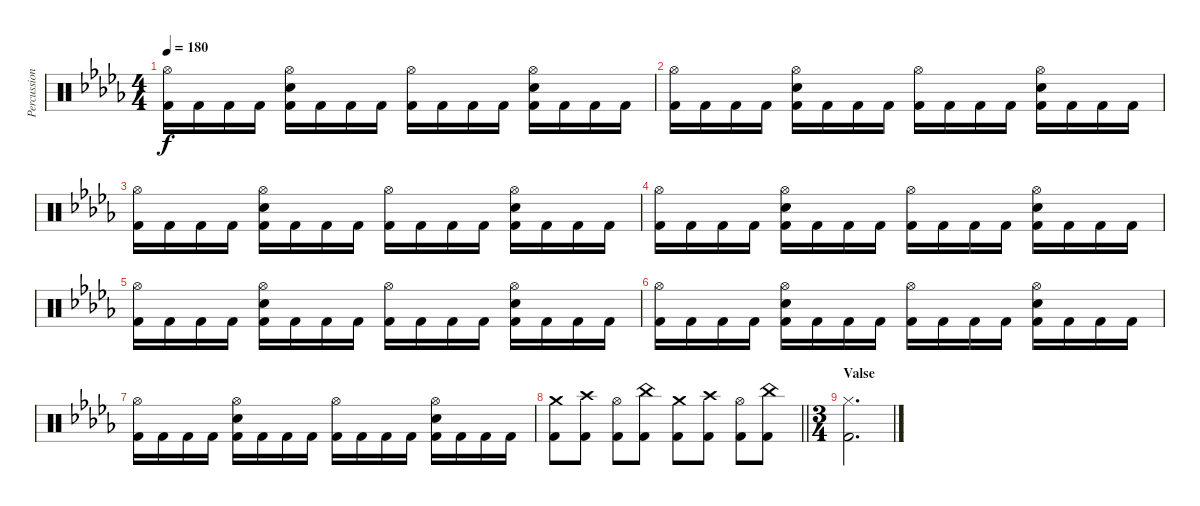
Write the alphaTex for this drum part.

\track ("Percussions" "Percussion") {instrument percussion}
\staff {score}
\articulation defaults
\ts (4 4)
\tempo 180
\clef neutral
\ks bbminor
("Hi-Hat (open)" "Kick (hit) 2").16{dy f} "Kick (hit) 2".16 "Kick (hit) 2".16 "Kick (hit) 2".16 ("Hi-Hat (open)" "Electric Snare (hit)" "Kick (hit) 2").16 "Kick (hit) 2".16 "Kick (hit) 2".16 "Kick (hit) 2".16 ("Hi-Hat (open)" "Kick (hit) 2").16 "Kick (hit) 2".16 "Kick (hit) 2".16 "Kick (hit) 2".16 ("Hi-Hat (open)" "Electric Snare (hit)" "Kick (hit) 2").16 "Kick (hit) 2".16 "Kick (hit) 2".16 "Kick (hit) 2".16 |
("Hi-Hat (open)" "Kick (hit) 2").16 "Kick (hit) 2".16 "Kick (hit) 2".16 "Kick (hit) 2".16 ("Hi-Hat (open)" "Electric Snare (hit)" "Kick (hit) 2").16 "Kick (hit) 2".16 "Kick (hit) 2".16 "Kick (hit) 2".16 ("Hi-Hat (open)" "Kick (hit) 2").16 "Kick (hit) 2".16 "Kick (hit) 2".16 "Kick (hit) 2".16 ("Hi-Hat (open)" "Electric Snare (hit)" "Kick (hit) 2").16 "Kick (hit) 2".16 "Kick (hit) 2".16 "Kick (hit) 2".16 |
("Hi-Hat (open)" "Kick (hit) 2").16 "Kick (hit) 2".16 "Kick (hit) 2".16 "Kick (hit) 2".16 ("Hi-Hat (open)" "Electric Snare (hit)" "Kick (hit) 2").16 "Kick (hit) 2".16 "Kick (hit) 2".16 "Kick (hit) 2".16 ("Hi-Hat (open)" "Kick (hit) 2").16 "Kick (hit) 2".16 "Kick (hit) 2".16 "Kick (hit) 2".16 ("Hi-Hat (open)" "Electric Snare (hit)" "Kick (hit) 2").16 "Kick (hit) 2".16 "Kick (hit) 2".16 "Kick (hit) 2".16 |
("Hi-Hat (open)" "Kick (hit) 2").16 "Kick (hit) 2".16 "Kick (hit) 2".16 "Kick (hit) 2".16 ("Hi-Hat (open)" "Electric Snare (hit)" "Kick (hit) 2").16 "Kick (hit) 2".16 "Kick (hit) 2".16 "Kick (hit) 2".16 ("Hi-Hat (open)" "Kick (hit) 2").16 "Kick (hit) 2".16 "Kick (hit) 2".16 "Kick (hit) 2".16 ("Hi-Hat (open)" "Electric Snare (hit)" "Kick (hit) 2").16 "Kick (hit) 2".16 "Kick (hit) 2".16 "Kick (hit) 2".16 |
("Hi-Hat (open)" "Kick (hit) 2").16 "Kick (hit) 2".16 "Kick (hit) 2".16 "Kick (hit) 2".16 ("Hi-Hat (open)" "Electric Snare (hit)" "Kick (hit) 2").16 "Kick (hit) 2".16 "Kick (hit) 2".16 "Kick (hit) 2".16 ("Hi-Hat (open)" "Kick (hit) 2").16 "Kick (hit) 2".16 "Kick (hit) 2".16 "Kick (hit) 2".16 ("Hi-Hat (open)" "Electric Snare (hit)" "Kick (hit) 2").16 "Kick (hit) 2".16 "Kick (hit) 2".16 "Kick (hit) 2".16 |
("Hi-Hat (open)" "Kick (hit) 2").16 "Kick (hit) 2".16 "Kick (hit) 2".16 "Kick (hit) 2".16 ("Hi-Hat (open)" "Electric Snare (hit)" "Kick (hit) 2").16 "Kick (hit) 2".16 "Kick (hit) 2".16 "Kick (hit) 2".16 ("Hi-Hat (open)" "Kick (hit) 2").16 "Kick (hit) 2".16 "Kick (hit) 2".16 "Kick (hit) 2".16 ("Hi-Hat (open)" "Electric Snare (hit)" "Kick (hit) 2").16 "Kick (hit) 2".16 "Kick (hit) 2".16 "Kick (hit) 2".16 |
("Hi-Hat (open)" "Kick (hit) 2").16 "Kick (hit) 2".16 "Kick (hit) 2".16 "Kick (hit) 2".16 ("Hi-Hat (open)" "Electric Snare (hit)" "Kick (hit) 2").16 "Kick (hit) 2".16 "Kick (hit) 2".16 "Kick (hit) 2".16 ("Hi-Hat (open)" "Kick (hit) 2").16 "Kick (hit) 2".16 "Kick (hit) 2".16 "Kick (hit) 2".16 ("Hi-Hat (open)" "Electric Snare (hit)" "Kick (hit) 2").16 "Kick (hit) 2".16 "Kick (hit) 2".16 "Kick (hit) 2".16 |
\barLineRight lightlight
("Crash medium (hit)" "Kick (hit) 2").8 ("Crash high (hit)" "Kick (hit) 2").8 ("Hi-Hat (open)" "Kick (hit) 2").8 ("China (hit)" "Kick (hit) 2").8 ("Crash medium (hit)" "Kick (hit) 2").8 ("Crash high (hit)" "Kick (hit) 2").8 ("Hi-Hat (open)" "Kick (hit) 2").8 ("China (hit)" "Kick (hit) 2").8 |
\ts (3 4)
\section ("" "Valse")
("Hi-Hat (closed)" "Kick (hit) 2").2{d}
